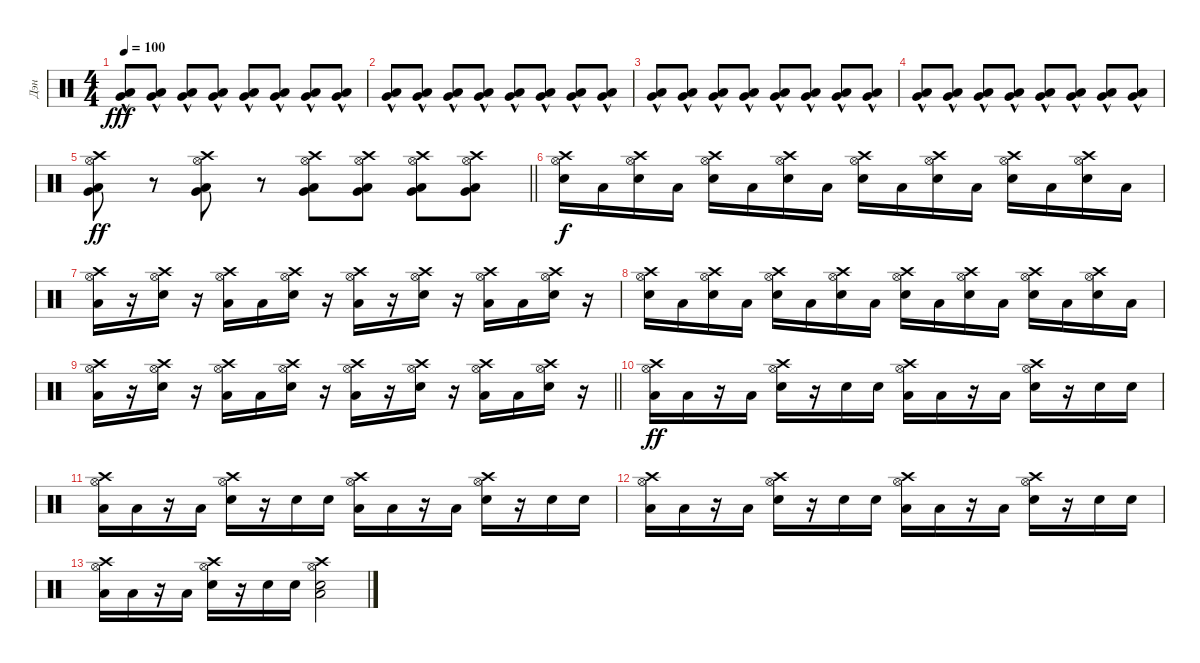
\track ("Дэн" "Дэн") {instrument percussion}
\staff {score}
\articulation defaults
\ts (4 4)
\tempo 100
\clef neutral
\ks c
("Low Floor Tom (hit)"{hac} "Very Low Tom (hit)"{hac}).8{dy fff} ("Low Floor Tom (hit)"{hac} "Very Low Tom (hit)"{hac}).8 ("Low Floor Tom (hit)"{hac} "Very Low Tom (hit)"{hac}).8 ("Low Floor Tom (hit)"{hac} "Very Low Tom (hit)"{hac}).8 ("Low Floor Tom (hit)"{hac} "Very Low Tom (hit)"{hac}).8 ("Low Floor Tom (hit)"{hac} "Very Low Tom (hit)"{hac}).8 ("Low Floor Tom (hit)"{hac} "Very Low Tom (hit)"{hac}).8 ("Low Floor Tom (hit)"{hac} "Very Low Tom (hit)"{hac}).8 |
("Low Floor Tom (hit)"{hac} "Very Low Tom (hit)"{hac}).8 ("Low Floor Tom (hit)"{hac} "Very Low Tom (hit)"{hac}).8 ("Low Floor Tom (hit)"{hac} "Very Low Tom (hit)"{hac}).8 ("Low Floor Tom (hit)"{hac} "Very Low Tom (hit)"{hac}).8 ("Low Floor Tom (hit)"{hac} "Very Low Tom (hit)"{hac}).8 ("Low Floor Tom (hit)"{hac} "Very Low Tom (hit)"{hac}).8 ("Low Floor Tom (hit)"{hac} "Very Low Tom (hit)"{hac}).8 ("Low Floor Tom (hit)"{hac} "Very Low Tom (hit)"{hac}).8 |
("Low Floor Tom (hit)"{hac} "Very Low Tom (hit)"{hac}).8 ("Low Floor Tom (hit)"{hac} "Very Low Tom (hit)"{hac}).8 ("Low Floor Tom (hit)"{hac} "Very Low Tom (hit)"{hac}).8 ("Low Floor Tom (hit)"{hac} "Very Low Tom (hit)"{hac}).8 ("Low Floor Tom (hit)"{hac} "Very Low Tom (hit)"{hac}).8 ("Low Floor Tom (hit)"{hac} "Very Low Tom (hit)"{hac}).8 ("Low Floor Tom (hit)"{hac} "Very Low Tom (hit)"{hac}).8 ("Low Floor Tom (hit)"{hac} "Very Low Tom (hit)"{hac}).8 |
("Low Floor Tom (hit)"{hac} "Very Low Tom (hit)"{hac}).8 ("Low Floor Tom (hit)"{hac} "Very Low Tom (hit)"{hac}).8 ("Low Floor Tom (hit)"{hac} "Very Low Tom (hit)"{hac}).8 ("Low Floor Tom (hit)"{hac} "Very Low Tom (hit)"{hac}).8 ("Low Floor Tom (hit)"{hac} "Very Low Tom (hit)"{hac}).8 ("Low Floor Tom (hit)"{hac} "Very Low Tom (hit)"{hac}).8 ("Low Floor Tom (hit)"{hac} "Very Low Tom (hit)"{hac}).8 ("Low Floor Tom (hit)"{hac} "Very Low Tom (hit)"{hac}).8 |
\barLineRight lightlight
("Low Floor Tom (hit)" "Very Low Tom (hit)" "Crash high (hit)" "Hi-Hat (open)").8{dy ff} r.8 ("Low Floor Tom (hit)" "Very Low Tom (hit)" "Crash high (hit)" "Hi-Hat (open)").8 r.8 ("Low Floor Tom (hit)" "Very Low Tom (hit)" "Crash high (hit)" "Hi-Hat (open)").8 ("Low Floor Tom (hit)" "Very Low Tom (hit)" "Crash high (hit)" "Hi-Hat (open)").8 ("Low Floor Tom (hit)" "Very Low Tom (hit)" "Crash high (hit)" "Hi-Hat (open)").8 ("Low Floor Tom (hit)" "Very Low Tom (hit)" "Crash high (hit)" "Hi-Hat (open)").8 |
("Hi-Hat (open)" "Electric Snare (hit)" "Crash high (hit)").16{dy f} "Low Floor Tom (hit)".16 ("Hi-Hat (open)" "Electric Snare (hit)" "Crash high (hit)").16 "Low Floor Tom (hit)".16 ("Hi-Hat (open)" "Electric Snare (hit)" "Crash high (hit)").16 "Low Floor Tom (hit)".16 ("Hi-Hat (open)" "Electric Snare (hit)" "Crash high (hit)").16 "Low Floor Tom (hit)".16 ("Hi-Hat (open)" "Electric Snare (hit)" "Crash high (hit)").16 "Low Floor Tom (hit)".16 ("Hi-Hat (open)" "Electric Snare (hit)" "Crash high (hit)").16 "Low Floor Tom (hit)".16 ("Hi-Hat (open)" "Electric Snare (hit)" "Crash high (hit)").16 "Low Floor Tom (hit)".16 ("Hi-Hat (open)" "Electric Snare (hit)" "Crash high (hit)").16 "Low Floor Tom (hit)".16 |
("Hi-Hat (open)" "Crash high (hit)" "Low Floor Tom (hit)").16 r.16 ("Hi-Hat (open)" "Electric Snare (hit)" "Crash high (hit)").16 r.16 ("Hi-Hat (open)" "Low Floor Tom (hit)" "Crash high (hit)").16 "Low Floor Tom (hit)".16 ("Hi-Hat (open)" "Electric Snare (hit)" "Crash high (hit)").16 r.16 ("Hi-Hat (open)" "Crash high (hit)" "Low Floor Tom (hit)").16 r.16 ("Hi-Hat (open)" "Electric Snare (hit)" "Crash high (hit)").16 r.16 ("Hi-Hat (open)" "Low Floor Tom (hit)" "Crash high (hit)").16 "Low Floor Tom (hit)".16 ("Hi-Hat (open)" "Electric Snare (hit)" "Crash high (hit)").16 r.16 |
("Hi-Hat (open)" "Electric Snare (hit)" "Crash high (hit)").16 "Low Floor Tom (hit)".16 ("Hi-Hat (open)" "Electric Snare (hit)" "Crash high (hit)").16 "Low Floor Tom (hit)".16 ("Hi-Hat (open)" "Electric Snare (hit)" "Crash high (hit)").16 "Low Floor Tom (hit)".16 ("Hi-Hat (open)" "Electric Snare (hit)" "Crash high (hit)").16 "Low Floor Tom (hit)".16 ("Hi-Hat (open)" "Electric Snare (hit)" "Crash high (hit)").16 "Low Floor Tom (hit)".16 ("Hi-Hat (open)" "Electric Snare (hit)" "Crash high (hit)").16 "Low Floor Tom (hit)".16 ("Hi-Hat (open)" "Electric Snare (hit)" "Crash high (hit)").16 "Low Floor Tom (hit)".16 ("Hi-Hat (open)" "Electric Snare (hit)" "Crash high (hit)").16 "Low Floor Tom (hit)".16 |
\barLineRight lightlight
("Hi-Hat (open)" "Crash high (hit)" "Low Floor Tom (hit)").16 r.16 ("Hi-Hat (open)" "Electric Snare (hit)" "Crash high (hit)").16 r.16 ("Hi-Hat (open)" "Low Floor Tom (hit)" "Crash high (hit)").16 "Low Floor Tom (hit)".16 ("Hi-Hat (open)" "Electric Snare (hit)" "Crash high (hit)").16 r.16 ("Hi-Hat (open)" "Crash high (hit)" "Low Floor Tom (hit)").16 r.16 ("Hi-Hat (open)" "Electric Snare (hit)" "Crash high (hit)").16 r.16 ("Hi-Hat (open)" "Low Floor Tom (hit)" "Crash high (hit)").16 "Low Floor Tom (hit)".16 ("Hi-Hat (open)" "Electric Snare (hit)" "Crash high (hit)").16 r.16 |
("Hi-Hat (open)" "Low Floor Tom (hit)" "Crash high (hit)").16{dy ff} "Low Floor Tom (hit)".16 r.16 "Low Floor Tom (hit)".16 ("Hi-Hat (open)" "Electric Snare (hit)" "Crash high (hit)").16 r.16 "Electric Snare (hit)".16 "Electric Snare (hit)".16 ("Hi-Hat (open)" "Low Floor Tom (hit)" "Crash high (hit)").16 "Low Floor Tom (hit)".16 r.16 "Low Floor Tom (hit)".16 ("Hi-Hat (open)" "Electric Snare (hit)" "Crash high (hit)").16 r.16 "Electric Snare (hit)".16 "Electric Snare (hit)".16 |
("Hi-Hat (open)" "Low Floor Tom (hit)" "Crash high (hit)").16 "Low Floor Tom (hit)".16 r.16 "Low Floor Tom (hit)".16 ("Hi-Hat (open)" "Electric Snare (hit)" "Crash high (hit)").16 r.16 "Electric Snare (hit)".16 "Electric Snare (hit)".16 ("Hi-Hat (open)" "Low Floor Tom (hit)" "Crash high (hit)").16 "Low Floor Tom (hit)".16 r.16 "Low Floor Tom (hit)".16 ("Hi-Hat (open)" "Electric Snare (hit)" "Crash high (hit)").16 r.16 "Electric Snare (hit)".16 "Electric Snare (hit)".16 |
("Hi-Hat (open)" "Low Floor Tom (hit)" "Crash high (hit)").16 "Low Floor Tom (hit)".16 r.16 "Low Floor Tom (hit)".16 ("Hi-Hat (open)" "Electric Snare (hit)" "Crash high (hit)").16 r.16 "Electric Snare (hit)".16 "Electric Snare (hit)".16 ("Hi-Hat (open)" "Low Floor Tom (hit)" "Crash high (hit)").16 "Low Floor Tom (hit)".16 r.16 "Low Floor Tom (hit)".16 ("Hi-Hat (open)" "Electric Snare (hit)" "Crash high (hit)").16 r.16 "Electric Snare (hit)".16 "Electric Snare (hit)".16 |
("Hi-Hat (open)" "Low Floor Tom (hit)" "Crash high (hit)").16 "Low Floor Tom (hit)".16 r.16 "Low Floor Tom (hit)".16 ("Hi-Hat (open)" "Electric Snare (hit)" "Crash high (hit)").16 r.16 "Electric Snare (hit)".16 "Electric Snare (hit)".16 ("Hi-Hat (open)" "Low Floor Tom (hit)" "Electric Snare (hit)" "Crash high (hit)").2
